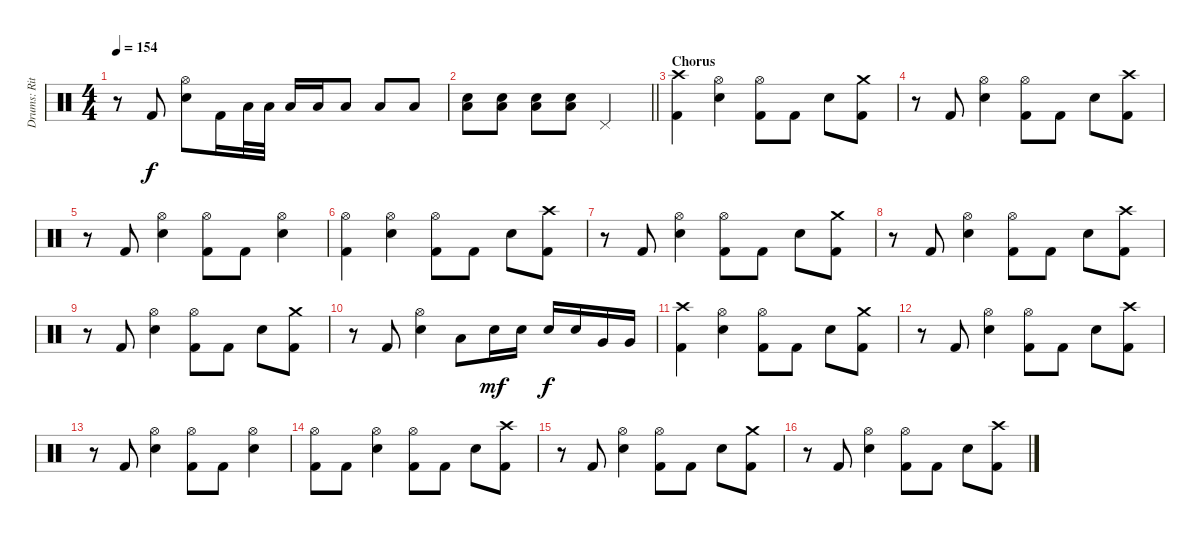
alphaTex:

\track ("Drums: Ritsu Tainaka" "Drums: Rit") {instrument percussion}
\staff {score}
\articulation defaults
\ts (4 4)
\tempo 154
\clef neutral
\ks c
r.8{dy f} "Kick (hit) 2".8 ("Hi-Hat (open)" "Electric Snare (hit)").8 "Kick (hit) 2".16 "Low Tom (hit)".32 "Low Tom (hit)".32 "Low Tom (hit)".16 "Low Tom (hit)".16 "Low Tom (hit)".8 "Low Floor Tom (hit)".8 "Low Floor Tom (hit)".8 |
\barLineRight lightlight
("Electric Snare (hit)" "Low Floor Tom (hit)").8 ("Electric Snare (hit)" "Low Floor Tom (hit)").8 ("Electric Snare (hit)" "Low Floor Tom (hit)").8 ("Electric Snare (hit)" "Low Floor Tom (hit)").8 "Pedal Hi-Hat (hit)".2 |
\section ("" "Chorus")
("Crash high (hit)" "Kick (hit) 2").4 ("Hi-Hat (open)" "Electric Snare (hit)").4 ("Hi-Hat (open)" "Kick (hit) 2").8 "Kick (hit) 2".8 "Electric Snare (hit)".8 ("Crash medium (hit)" "Kick (hit) 2").8 |
r.8 "Kick (hit) 2".8 ("Hi-Hat (open)" "Electric Snare (hit)").4 ("Hi-Hat (open)" "Kick (hit) 2").8 "Kick (hit) 2".8 "Electric Snare (hit)".8 ("Crash high (hit)" "Kick (hit) 2").8 |
r.8 "Kick (hit) 2".8 ("Hi-Hat (open)" "Electric Snare (hit)").4 ("Hi-Hat (open)" "Kick (hit) 2").8 "Kick (hit) 2".8 ("Hi-Hat (open)" "Electric Snare (hit)").4 |
("Hi-Hat (open)" "Kick (hit) 2").4 ("Hi-Hat (open)" "Electric Snare (hit)").4 ("Hi-Hat (open)" "Kick (hit) 2").8 "Kick (hit) 2".8 "Electric Snare (hit)".8 ("Crash high (hit)" "Kick (hit) 2").8 |
r.8 "Kick (hit) 2".8 ("Hi-Hat (open)" "Electric Snare (hit)").4 ("Hi-Hat (open)" "Kick (hit) 2").8 "Kick (hit) 2".8 "Electric Snare (hit)".8 ("Crash medium (hit)" "Kick (hit) 2").8 |
r.8 "Kick (hit) 2".8 ("Hi-Hat (open)" "Electric Snare (hit)").4 ("Hi-Hat (open)" "Kick (hit) 2").8 "Kick (hit) 2".8 "Electric Snare (hit)".8 ("Crash high (hit)" "Kick (hit) 2").8 |
r.8 "Kick (hit) 2".8 ("Hi-Hat (open)" "Electric Snare (hit)").4 ("Hi-Hat (open)" "Kick (hit) 2").8 "Kick (hit) 2".8 "Electric Snare (hit)".8 ("Crash medium (hit)" "Kick (hit) 2").8 |
r.8 "Kick (hit) 2".8 ("Hi-Hat (open)" "Electric Snare (hit)").4 "Low Tom (hit)".8 "Electric Snare (hit)".16{dy mf} "Electric Snare (hit)".16 "Electric Snare (hit)".16{dy f} "Electric Snare (hit)".16 "Very Low Tom (hit)".16 "Very Low Tom (hit)".16 |
("Crash high (hit)" "Kick (hit) 2").4 ("Hi-Hat (open)" "Electric Snare (hit)").4 ("Hi-Hat (open)" "Kick (hit) 2").8 "Kick (hit) 2".8 "Electric Snare (hit)".8 ("Crash medium (hit)" "Kick (hit) 2").8 |
r.8 "Kick (hit) 2".8 ("Hi-Hat (open)" "Electric Snare (hit)").4 ("Hi-Hat (open)" "Kick (hit) 2").8 "Kick (hit) 2".8 "Electric Snare (hit)".8 ("Crash high (hit)" "Kick (hit) 2").8 |
r.8 "Kick (hit) 2".8 ("Hi-Hat (open)" "Electric Snare (hit)").4 ("Hi-Hat (open)" "Kick (hit) 2").8 "Kick (hit) 2".8 ("Hi-Hat (open)" "Electric Snare (hit)").4 |
("Hi-Hat (open)" "Kick (hit) 2").8 "Kick (hit) 2".8 ("Hi-Hat (open)" "Electric Snare (hit)").4 ("Hi-Hat (open)" "Kick (hit) 2").8 "Kick (hit) 2".8 "Electric Snare (hit)".8 ("Crash high (hit)" "Kick (hit) 2").8 |
r.8 "Kick (hit) 2".8 ("Hi-Hat (open)" "Electric Snare (hit)").4 ("Hi-Hat (open)" "Kick (hit) 2").8 "Kick (hit) 2".8 "Electric Snare (hit)".8 ("Crash medium (hit)" "Kick (hit) 2").8 |
r.8 "Kick (hit) 2".8 ("Hi-Hat (open)" "Electric Snare (hit)").4 ("Hi-Hat (open)" "Kick (hit) 2").8 "Kick (hit) 2".8 "Electric Snare (hit)".8 ("Crash high (hit)" "Kick (hit) 2").8
